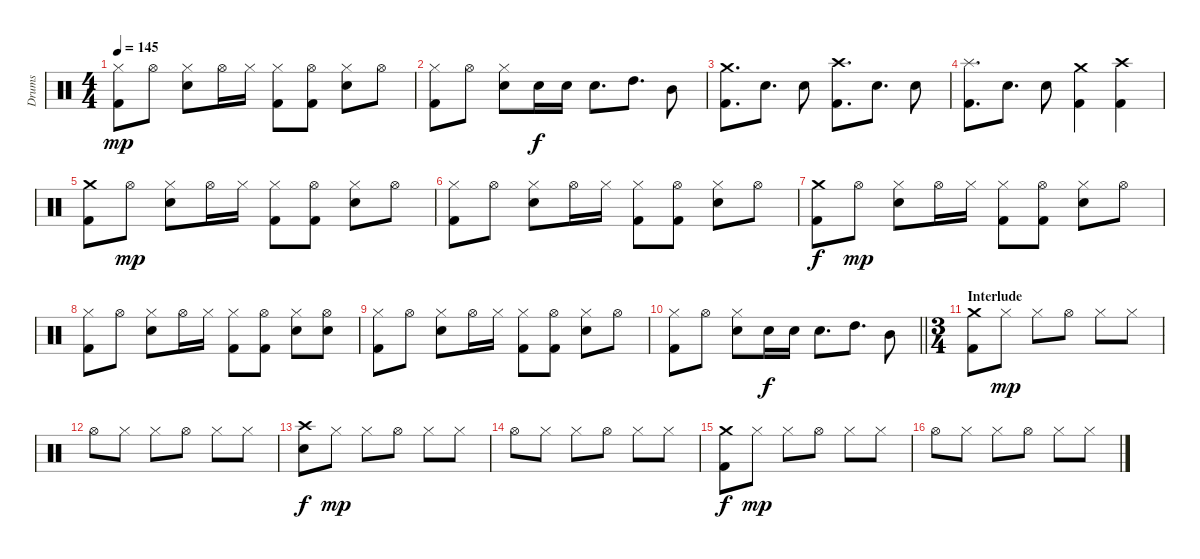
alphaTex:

\track ("Drums" "Drums") {instrument percussion}
\staff {score}
\articulation defaults
\ts (4 4)
\tempo 145
\clef neutral
\ks c
("Hi-Hat (closed)" "Kick (hit) 2").8{dy mp} "Hi-Hat (open)".8 ("Hi-Hat (closed)" "Snare (hit) 2").8 "Hi-Hat (open)".16 "Hi-Hat (closed)".16 ("Hi-Hat (closed)" "Kick (hit) 2").8 ("Hi-Hat (open)" "Kick (hit) 2").8 ("Hi-Hat (closed)" "Snare (hit) 2").8 "Hi-Hat (open)".8 |
("Hi-Hat (closed)" "Kick (hit) 2").8 "Hi-Hat (open)".8 ("Hi-Hat (closed)" "Snare (hit) 2").8 "Snare (hit) 2".16{dy f} "Snare (hit) 2".16 "Snare (hit) 2".8{d} "High Tom (hit)".8{d} "Mid Tom (hit)".8 |
("Crash medium (hit)" "Kick (hit) 2").8{d} "Snare (hit) 2".8{d} "Snare (hit) 2".8 ("Crash high (hit)" "Kick (hit) 2").8{d} "Snare (hit) 2".8{d} "Snare (hit) 2".8 |
("Splash (hit)" "Kick (hit) 2").8{d} "Snare (hit) 2".8{d} "Snare (hit) 2".8 ("Crash medium (hit)" "Kick (hit) 2").4 ("Crash high (hit)" "Kick (hit) 2").4 |
("Crash medium (hit)" "Kick (hit) 2").8 "Hi-Hat (open)".8{dy mp} ("Hi-Hat (closed)" "Snare (hit) 2").8 "Hi-Hat (open)".16 "Hi-Hat (closed)".16 ("Hi-Hat (closed)" "Kick (hit) 2").8 ("Hi-Hat (open)" "Kick (hit) 2").8 ("Hi-Hat (closed)" "Snare (hit) 2").8 "Hi-Hat (open)".8 |
("Hi-Hat (closed)" "Kick (hit) 2").8 "Hi-Hat (open)".8 ("Hi-Hat (closed)" "Snare (hit) 2").8 "Hi-Hat (open)".16 "Hi-Hat (closed)".16 ("Hi-Hat (closed)" "Kick (hit) 2").8 ("Hi-Hat (open)" "Kick (hit) 2").8 ("Hi-Hat (closed)" "Snare (hit) 2").8 "Hi-Hat (open)".8 |
("Crash medium (hit)" "Kick (hit) 2").8{dy f} "Hi-Hat (open)".8{dy mp} ("Hi-Hat (closed)" "Snare (hit) 2").8 "Hi-Hat (open)".16 "Hi-Hat (closed)".16 ("Hi-Hat (closed)" "Kick (hit) 2").8 ("Hi-Hat (open)" "Kick (hit) 2").8 ("Hi-Hat (closed)" "Snare (hit) 2").8 "Hi-Hat (open)".8 |
("Hi-Hat (closed)" "Kick (hit) 2").8 "Hi-Hat (open)".8 ("Hi-Hat (closed)" "Snare (hit) 2").8 "Hi-Hat (open)".16 "Hi-Hat (closed)".16 ("Hi-Hat (closed)" "Kick (hit) 2").8 ("Hi-Hat (open)" "Kick (hit) 2").8 ("Hi-Hat (closed)" "Snare (hit) 2").8 ("Hi-Hat (open)" "Snare (hit) 2").8 |
("Hi-Hat (closed)" "Kick (hit) 2").8 "Hi-Hat (open)".8 ("Hi-Hat (closed)" "Snare (hit) 2").8 "Hi-Hat (open)".16 "Hi-Hat (closed)".16 ("Hi-Hat (closed)" "Kick (hit) 2").8 ("Hi-Hat (open)" "Kick (hit) 2").8 ("Hi-Hat (closed)" "Snare (hit) 2").8 "Hi-Hat (open)".8 |
\barLineRight lightlight
("Hi-Hat (closed)" "Kick (hit) 2").8 "Hi-Hat (open)".8 ("Hi-Hat (closed)" "Snare (hit) 2").8 "Snare (hit) 2".16{dy f} "Snare (hit) 2".16 "Snare (hit) 2".8{d} "High Tom (hit)".8{d} "Mid Tom (hit)".8 |
\ts (3 4)
\section ("" "Interlude")
("Crash medium (hit)" "Kick (hit) 2").8 "Hi-Hat (closed)".8{dy mp} "Hi-Hat (closed)".8 "Hi-Hat (open)".8 "Hi-Hat (closed)".8 "Hi-Hat (closed)".8 |
"Hi-Hat (open)".8 "Hi-Hat (closed)".8 "Hi-Hat (closed)".8 "Hi-Hat (open)".8 "Hi-Hat (closed)".8 "Hi-Hat (closed)".8 |
("Crash high (hit)" "Snare (hit) 2").8{dy f} "Hi-Hat (closed)".8{dy mp} "Hi-Hat (closed)".8 "Hi-Hat (open)".8 "Hi-Hat (closed)".8 "Hi-Hat (closed)".8 |
"Hi-Hat (open)".8 "Hi-Hat (closed)".8 "Hi-Hat (closed)".8 "Hi-Hat (open)".8 "Hi-Hat (closed)".8 "Hi-Hat (closed)".8 |
("Crash medium (hit)" "Kick (hit) 2").8{dy f} "Hi-Hat (closed)".8{dy mp} "Hi-Hat (closed)".8 "Hi-Hat (open)".8 "Hi-Hat (closed)".8 "Hi-Hat (closed)".8 |
"Hi-Hat (open)".8 "Hi-Hat (closed)".8 "Hi-Hat (closed)".8 "Hi-Hat (open)".8 "Hi-Hat (closed)".8 "Hi-Hat (closed)".8
